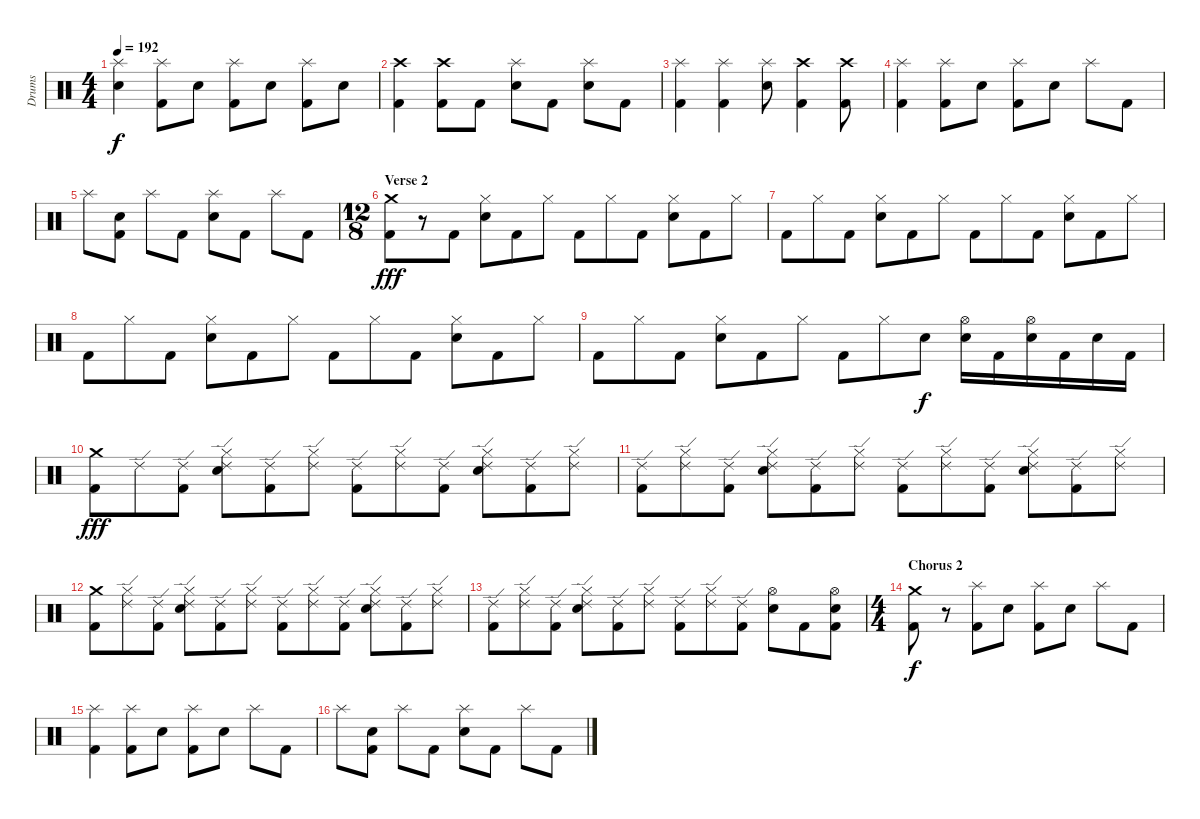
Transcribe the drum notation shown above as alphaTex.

\track ("Drums" "Drums") {instrument percussion}
\staff {score}
\articulation defaults
\ts (4 4)
\tempo 192
\clef neutral
\ks c
("Splash (hit)" "Electric Snare (hit)").4{dy f} ("Splash (hit)" "Kick (hit) 2").8 "Electric Snare (hit)".8 ("Splash (hit)" "Kick (hit) 2").8 "Electric Snare (hit)".8 ("Splash (hit)" "Kick (hit) 2").8 "Electric Snare (hit)".8 |
("Crash high (hit)" "Kick (hit) 2").4 ("Crash high (hit)" "Kick (hit) 2").8 "Kick (hit) 2".8 ("Splash (hit)" "Electric Snare (hit)").8 "Kick (hit) 2".8 ("Splash (hit)" "Electric Snare (hit)").8 "Kick (hit) 2".8 |
("Splash (hit)" "Kick (hit) 2").4 ("Splash (hit)" "Kick (hit) 2").4 ("Splash (hit)" "Electric Snare (hit)").8 ("Crash high (hit)" "Kick (hit) 2").4 ("Crash high (hit)" "Kick (hit) 2").8 |
("Splash (hit)" "Kick (hit) 2").4 ("Splash (hit)" "Kick (hit) 2").8 "Electric Snare (hit)".8 ("Splash (hit)" "Kick (hit) 2").8 "Electric Snare (hit)".8 "Splash (hit)".8 "Kick (hit) 2".8 |
"Splash (hit)".8 ("Electric Snare (hit)" "Kick (hit) 2").8 "Splash (hit)".8 "Kick (hit) 2".8 ("Splash (hit)" "Electric Snare (hit)").8 "Kick (hit) 2".8 "Splash (hit)".8 "Kick (hit) 2".8 |
\ts (12 8)
\section ("" "Verse 2")
("Crash medium (hit)" "Kick (hit) 2").8{dy fff} r.8 "Kick (hit) 2".8 ("Hi-Hat (closed)" "Electric Snare (hit)").8 "Kick (hit) 2".8 "Hi-Hat (closed)".8 "Kick (hit) 2".8 "Hi-Hat (closed)".8 "Kick (hit) 2".8 ("Hi-Hat (closed)" "Electric Snare (hit)").8 "Kick (hit) 2".8 "Hi-Hat (closed)".8 |
"Kick (hit) 2".8 "Hi-Hat (closed)".8 "Kick (hit) 2".8 ("Hi-Hat (closed)" "Electric Snare (hit)").8 "Kick (hit) 2".8 "Hi-Hat (closed)".8 "Kick (hit) 2".8 "Hi-Hat (closed)".8 "Kick (hit) 2".8 ("Hi-Hat (closed)" "Electric Snare (hit)").8 "Kick (hit) 2".8 "Hi-Hat (closed)".8 |
"Kick (hit) 2".8 "Hi-Hat (closed)".8 "Kick (hit) 2".8 ("Hi-Hat (closed)" "Electric Snare (hit)").8 "Kick (hit) 2".8 "Hi-Hat (closed)".8 "Kick (hit) 2".8 "Hi-Hat (closed)".8 "Kick (hit) 2".8 ("Hi-Hat (closed)" "Electric Snare (hit)").8 "Kick (hit) 2".8 "Hi-Hat (closed)".8 |
"Kick (hit) 2".8 "Hi-Hat (closed)".8 "Kick (hit) 2".8 ("Hi-Hat (closed)" "Electric Snare (hit)").8 "Kick (hit) 2".8 "Hi-Hat (closed)".8 "Kick (hit) 2".8 "Hi-Hat (closed)".8 "Electric Snare (hit)".8{dy f} ("Hi-Hat (open)" "Electric Snare (hit)").16 "Kick (hit) 2".16 ("Hi-Hat (open)" "Electric Snare (hit)").16 "Kick (hit) 2".16 "Electric Snare (hit)".16 "Kick (hit) 2".16 |
("Crash medium (hit)" "Kick (hit) 2").8{dy fff} "Ride (edge) 2".8 ("Kick (hit) 2" "Ride (edge) 2").8 ("Hi-Hat (closed)" "Electric Snare (hit)" "Ride (edge) 2").8 ("Kick (hit) 2" "Ride (edge) 2").8 ("Hi-Hat (closed)" "Ride (edge) 2").8 ("Kick (hit) 2" "Ride (edge) 2").8 ("Hi-Hat (closed)" "Ride (edge) 2").8 ("Kick (hit) 2" "Ride (edge) 2").8 ("Hi-Hat (closed)" "Electric Snare (hit)" "Ride (edge) 2").8 ("Kick (hit) 2" "Ride (edge) 2").8 ("Hi-Hat (closed)" "Ride (edge) 2").8 |
("Kick (hit) 2" "Ride (edge) 2").8 ("Hi-Hat (closed)" "Ride (edge) 2").8 ("Kick (hit) 2" "Ride (edge) 2").8 ("Hi-Hat (closed)" "Electric Snare (hit)" "Ride (edge) 2").8 ("Kick (hit) 2" "Ride (edge) 2").8 ("Hi-Hat (closed)" "Ride (edge) 2").8 ("Kick (hit) 2" "Ride (edge) 2").8 ("Hi-Hat (closed)" "Ride (edge) 2").8 ("Kick (hit) 2" "Ride (edge) 2").8 ("Hi-Hat (closed)" "Electric Snare (hit)" "Ride (edge) 2").8 ("Kick (hit) 2" "Ride (edge) 2").8 ("Hi-Hat (closed)" "Ride (edge) 2").8 |
("Crash medium (hit)" "Kick (hit) 2").8 ("Hi-Hat (closed)" "Ride (edge) 2").8 ("Kick (hit) 2" "Ride (edge) 2").8 ("Hi-Hat (closed)" "Electric Snare (hit)" "Ride (edge) 2").8 ("Kick (hit) 2" "Ride (edge) 2").8 ("Hi-Hat (closed)" "Ride (edge) 2").8 ("Kick (hit) 2" "Ride (edge) 2").8 ("Hi-Hat (closed)" "Ride (edge) 2").8 ("Kick (hit) 2" "Ride (edge) 2").8 ("Hi-Hat (closed)" "Electric Snare (hit)" "Ride (edge) 2").8 ("Kick (hit) 2" "Ride (edge) 2").8 ("Hi-Hat (closed)" "Ride (edge) 2").8 |
("Kick (hit) 2" "Ride (edge) 2").8 ("Hi-Hat (closed)" "Ride (edge) 2").8 ("Kick (hit) 2" "Ride (edge) 2").8 ("Hi-Hat (closed)" "Electric Snare (hit)" "Ride (edge) 2").8 ("Kick (hit) 2" "Ride (edge) 2").8 ("Hi-Hat (closed)" "Ride (edge) 2").8 ("Kick (hit) 2" "Ride (edge) 2").8 ("Hi-Hat (closed)" "Ride (edge) 2").8 ("Kick (hit) 2" "Ride (edge) 2").8 ("Hi-Hat (open)" "Electric Snare (hit)").8 "Kick (hit) 2".8 ("Hi-Hat (open)" "Electric Snare (hit)" "Kick (hit) 2").8 |
\ts (4 4)
\section ("" "Chorus 2")
("Crash medium (hit)" "Kick (hit) 2").8{dy f} r.8 ("Splash (hit)" "Kick (hit) 2").8 "Electric Snare (hit)".8 ("Splash (hit)" "Kick (hit) 2").8 "Electric Snare (hit)".8 "Splash (hit)".8 "Kick (hit) 2".8 |
("Splash (hit)" "Kick (hit) 2").4 ("Splash (hit)" "Kick (hit) 2").8 "Electric Snare (hit)".8 ("Splash (hit)" "Kick (hit) 2").8 "Electric Snare (hit)".8 "Splash (hit)".8 "Kick (hit) 2".8 |
"Splash (hit)".8 ("Electric Snare (hit)" "Kick (hit) 2").8 "Splash (hit)".8 "Kick (hit) 2".8 ("Splash (hit)" "Electric Snare (hit)").8 "Kick (hit) 2".8 "Splash (hit)".8 "Kick (hit) 2".8
